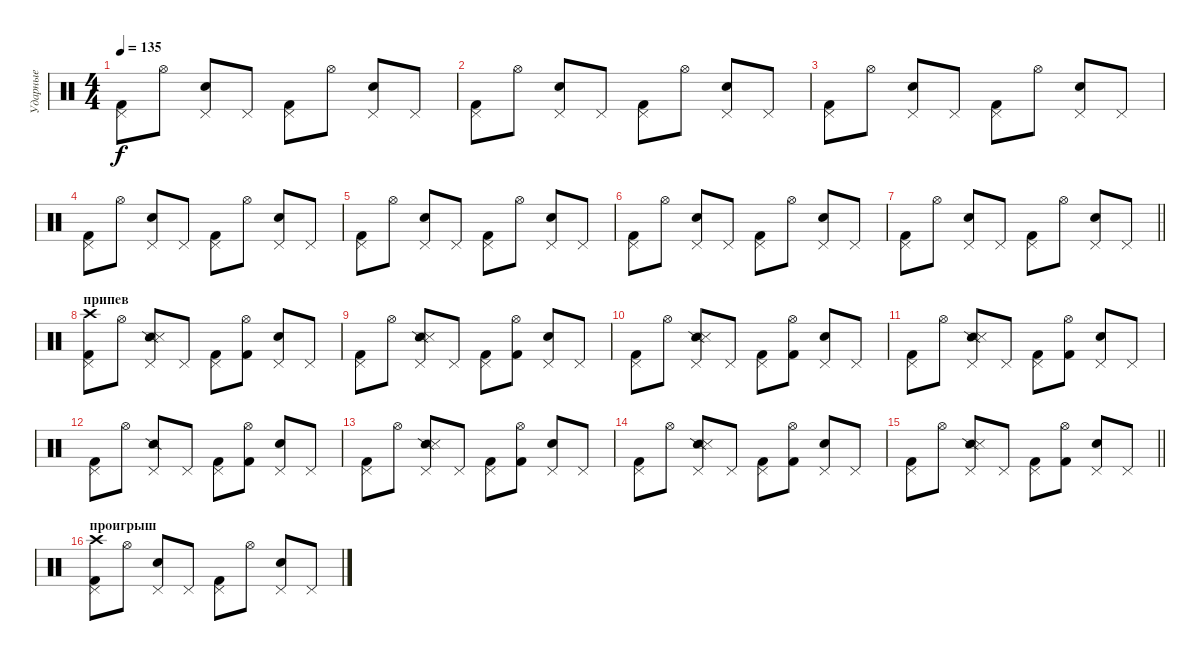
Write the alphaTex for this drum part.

\track ("Ударные" "Ударные") {instrument percussion}
\staff {score}
\articulation defaults
\ts (4 4)
\tempo 135
\clef neutral
\ks c
("Pedal Hi-Hat (hit)" "Kick (hit) 2").8{dy f} "Hi-Hat (open)".8 ("Pedal Hi-Hat (hit)" "Snare (hit) 2").8 "Pedal Hi-Hat (hit)".8 ("Pedal Hi-Hat (hit)" "Kick (hit) 2").8 "Hi-Hat (open)".8 ("Pedal Hi-Hat (hit)" "Snare (hit) 2").8 "Pedal Hi-Hat (hit)".8 |
("Pedal Hi-Hat (hit)" "Kick (hit) 2").8 "Hi-Hat (open)".8 ("Pedal Hi-Hat (hit)" "Snare (hit) 2").8 "Pedal Hi-Hat (hit)".8 ("Pedal Hi-Hat (hit)" "Kick (hit) 2").8 "Hi-Hat (open)".8 ("Pedal Hi-Hat (hit)" "Snare (hit) 2").8 "Pedal Hi-Hat (hit)".8 |
("Pedal Hi-Hat (hit)" "Kick (hit) 2").8 "Hi-Hat (open)".8 ("Pedal Hi-Hat (hit)" "Snare (hit) 2").8 "Pedal Hi-Hat (hit)".8 ("Pedal Hi-Hat (hit)" "Kick (hit) 2").8 "Hi-Hat (open)".8 ("Pedal Hi-Hat (hit)" "Snare (hit) 2").8 "Pedal Hi-Hat (hit)".8 |
("Pedal Hi-Hat (hit)" "Kick (hit) 2").8 "Hi-Hat (open)".8 ("Pedal Hi-Hat (hit)" "Snare (hit) 2").8 "Pedal Hi-Hat (hit)".8 ("Pedal Hi-Hat (hit)" "Kick (hit) 2").8 "Hi-Hat (open)".8 ("Pedal Hi-Hat (hit)" "Snare (hit) 2").8 "Pedal Hi-Hat (hit)".8 |
("Pedal Hi-Hat (hit)" "Kick (hit) 2").8 "Hi-Hat (open)".8 ("Pedal Hi-Hat (hit)" "Snare (hit) 2").8 "Pedal Hi-Hat (hit)".8 ("Pedal Hi-Hat (hit)" "Kick (hit) 2").8 "Hi-Hat (open)".8 ("Pedal Hi-Hat (hit)" "Snare (hit) 2").8 "Pedal Hi-Hat (hit)".8 |
("Pedal Hi-Hat (hit)" "Kick (hit) 2").8 "Hi-Hat (open)".8 ("Pedal Hi-Hat (hit)" "Snare (hit) 2").8 "Pedal Hi-Hat (hit)".8 ("Pedal Hi-Hat (hit)" "Kick (hit) 2").8 "Hi-Hat (open)".8 ("Pedal Hi-Hat (hit)" "Snare (hit) 2").8 "Pedal Hi-Hat (hit)".8 |
\barLineRight lightlight
("Pedal Hi-Hat (hit)" "Kick (hit) 2").8 "Hi-Hat (open)".8 ("Pedal Hi-Hat (hit)" "Snare (hit) 2").8 "Pedal Hi-Hat (hit)".8 ("Pedal Hi-Hat (hit)" "Kick (hit) 2").8 "Hi-Hat (open)".8 ("Pedal Hi-Hat (hit)" "Snare (hit) 2").8 "Pedal Hi-Hat (hit)".8 |
\section ("" "припев")
("Pedal Hi-Hat (hit)" "Kick (hit) 2" "Crash high (hit)").8 "Hi-Hat (open)".8 ("Pedal Hi-Hat (hit)" "Snare (side stick) 2" "Snare (side stick) 3").8 "Pedal Hi-Hat (hit)".8 ("Pedal Hi-Hat (hit)" "Kick (hit) 2").8 ("Hi-Hat (open)" "Kick (hit) 2").8 ("Pedal Hi-Hat (hit)" "Snare (hit) 2").8 "Pedal Hi-Hat (hit)".8 |
("Pedal Hi-Hat (hit)" "Kick (hit) 2").8 "Hi-Hat (open)".8 ("Pedal Hi-Hat (hit)" "Snare (side stick) 2" "Snare (side stick) 3").8 "Pedal Hi-Hat (hit)".8 ("Pedal Hi-Hat (hit)" "Kick (hit) 2").8 ("Hi-Hat (open)" "Kick (hit) 2").8 ("Pedal Hi-Hat (hit)" "Snare (hit) 2").8 "Pedal Hi-Hat (hit)".8 |
("Pedal Hi-Hat (hit)" "Kick (hit) 2").8 "Hi-Hat (open)".8 ("Pedal Hi-Hat (hit)" "Snare (side stick) 2" "Snare (side stick) 3").8 "Pedal Hi-Hat (hit)".8 ("Pedal Hi-Hat (hit)" "Kick (hit) 2").8 ("Hi-Hat (open)" "Kick (hit) 2").8 ("Pedal Hi-Hat (hit)" "Snare (hit) 2").8 "Pedal Hi-Hat (hit)".8 |
("Pedal Hi-Hat (hit)" "Kick (hit) 2").8 "Hi-Hat (open)".8 ("Pedal Hi-Hat (hit)" "Snare (side stick) 2" "Snare (side stick) 3").8 "Pedal Hi-Hat (hit)".8 ("Pedal Hi-Hat (hit)" "Kick (hit) 2").8 ("Hi-Hat (open)" "Kick (hit) 2").8 ("Pedal Hi-Hat (hit)" "Snare (hit) 2").8 "Pedal Hi-Hat (hit)".8 |
("Pedal Hi-Hat (hit)" "Kick (hit) 2").8 "Hi-Hat (open)".8 ("Pedal Hi-Hat (hit)" "Snare (side stick) 2").8 "Pedal Hi-Hat (hit)".8 ("Pedal Hi-Hat (hit)" "Kick (hit) 2").8 ("Hi-Hat (open)" "Kick (hit) 2").8 ("Pedal Hi-Hat (hit)" "Snare (hit) 2").8 "Pedal Hi-Hat (hit)".8 |
("Pedal Hi-Hat (hit)" "Kick (hit) 2").8 "Hi-Hat (open)".8 ("Pedal Hi-Hat (hit)" "Snare (side stick) 2" "Snare (side stick) 3").8 "Pedal Hi-Hat (hit)".8 ("Pedal Hi-Hat (hit)" "Kick (hit) 2").8 ("Hi-Hat (open)" "Kick (hit) 2").8 ("Pedal Hi-Hat (hit)" "Snare (hit) 2").8 "Pedal Hi-Hat (hit)".8 |
("Pedal Hi-Hat (hit)" "Kick (hit) 2").8 "Hi-Hat (open)".8 ("Pedal Hi-Hat (hit)" "Snare (side stick) 2" "Snare (side stick) 3").8 "Pedal Hi-Hat (hit)".8 ("Pedal Hi-Hat (hit)" "Kick (hit) 2").8 ("Hi-Hat (open)" "Kick (hit) 2").8 ("Pedal Hi-Hat (hit)" "Snare (hit) 2").8 "Pedal Hi-Hat (hit)".8 |
\barLineRight lightlight
("Pedal Hi-Hat (hit)" "Kick (hit) 2").8 "Hi-Hat (open)".8 ("Pedal Hi-Hat (hit)" "Snare (side stick) 2" "Snare (side stick) 3").8 "Pedal Hi-Hat (hit)".8 ("Pedal Hi-Hat (hit)" "Kick (hit) 2").8 ("Hi-Hat (open)" "Kick (hit) 2").8 ("Pedal Hi-Hat (hit)" "Snare (hit) 2").8 "Pedal Hi-Hat (hit)".8 |
\section ("" "проигрыш")
("Pedal Hi-Hat (hit)" "Kick (hit) 2" "Crash high (hit)").8 "Hi-Hat (open)".8 ("Pedal Hi-Hat (hit)" "Snare (hit) 2").8 "Pedal Hi-Hat (hit)".8 ("Pedal Hi-Hat (hit)" "Kick (hit) 2").8 "Hi-Hat (open)".8 ("Pedal Hi-Hat (hit)" "Snare (hit) 2").8 "Pedal Hi-Hat (hit)".8
